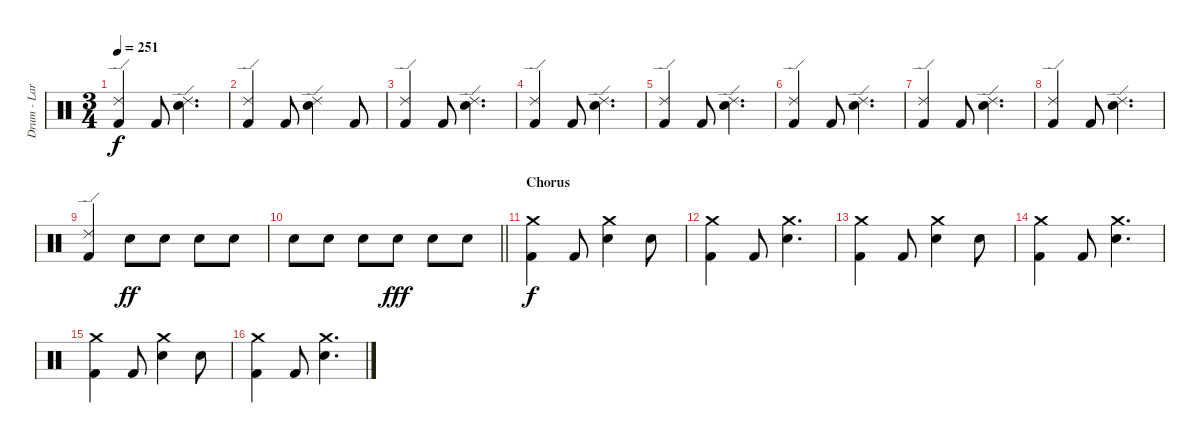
\track ("Drum - Larzon" "Drum - Lar") {instrument percussion}
\staff {score}
\articulation defaults
\ts (3 4)
\tempo 251
\clef neutral
\ks c
("Kick (hit) 2" "Ride (edge) 2").4{dy f} "Kick (hit) 2".8 ("Snare (hit) 2" "Ride (edge) 2").4{d} |
("Kick (hit) 2" "Ride (edge) 2").4 "Kick (hit) 2".8 ("Snare (hit) 2" "Ride (edge) 2").4 "Kick (hit) 2".8 |
("Kick (hit) 2" "Ride (edge) 2").4 "Kick (hit) 2".8 ("Snare (hit) 2" "Ride (edge) 2").4{d} |
("Kick (hit) 2" "Ride (edge) 2").4 "Kick (hit) 2".8 ("Snare (hit) 2" "Ride (edge) 2").4{d} |
("Kick (hit) 2" "Ride (edge) 2").4 "Kick (hit) 2".8 ("Snare (hit) 2" "Ride (edge) 2").4{d} |
("Kick (hit) 2" "Ride (edge) 2").4 "Kick (hit) 2".8 ("Snare (hit) 2" "Ride (edge) 2").4{d} |
("Kick (hit) 2" "Ride (edge) 2").4 "Kick (hit) 2".8 ("Snare (hit) 2" "Ride (edge) 2").4{d} |
("Kick (hit) 2" "Ride (edge) 2").4 "Kick (hit) 2".8 ("Snare (hit) 2" "Ride (edge) 2").4{d} |
("Kick (hit) 2" "Ride (edge) 2").4 "Electric Snare (hit)".8{dy ff} "Electric Snare (hit)".8 "Electric Snare (hit)".8 "Electric Snare (hit)".8 |
\barLineRight lightlight "Electric Snare (hit)".8 "Electric Snare (hit)".8 "Electric Snare (hit)".8 "Electric Snare (hit)".8{dy fff} "Electric Snare (hit)".8 "Electric Snare (hit)".8
|
\section ("" "Chorus")
("Kick (hit) 2" "Crash medium (hit)").4{dy f} "Kick (hit) 2".8 ("Snare (hit) 2" "Crash medium (hit)").4 "Snare (hit) 2".8 |
("Kick (hit) 2" "Crash medium (hit)").4 "Kick (hit) 2".8 ("Snare (hit) 2" "Crash medium (hit)").4{d} |
("Kick (hit) 2" "Crash medium (hit)").4 "Kick (hit) 2".8 ("Snare (hit) 2" "Crash medium (hit)").4 "Snare (hit) 2".8 |
("Kick (hit) 2" "Crash medium (hit)").4 "Kick (hit) 2".8 ("Snare (hit) 2" "Crash medium (hit)").4{d} |
("Kick (hit) 2" "Crash medium (hit)").4 "Kick (hit) 2".8 ("Snare (hit) 2" "Crash medium (hit)").4 "Snare (hit) 2".8 |
("Kick (hit) 2" "Crash medium (hit)").4 "Kick (hit) 2".8 ("Snare (hit) 2" "Crash medium (hit)").4{d}
